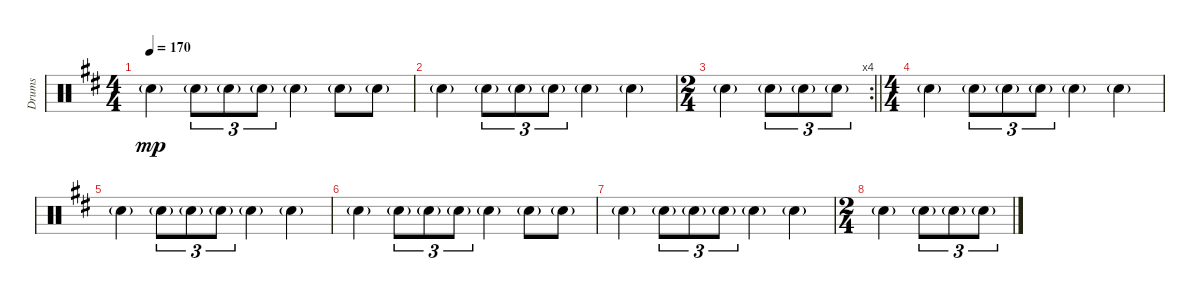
\track ("Drums" "Drums") {instrument percussion}
\staff {score}
\articulation defaults
\ts (4 4)
\tempo 170
\clef neutral
\ks d "Snare (hit) 2"{g}.4{dy mp} "Snare (hit) 2"{g}.8{tu (3 2)} "Snare (hit) 2"{g}.8{tu (3 2)} "Snare (hit) 2"{g}.8{tu (3 2)} "Snare (hit) 2"{g}.4 "Snare (hit) 2"{g}.8 "Snare (hit) 2"{g}.8
|
"Snare (hit) 2"{g}.4 "Snare (hit) 2"{g}.8{tu (3 2)} "Snare (hit) 2"{g}.8{tu (3 2)} "Snare (hit) 2"{g}.8{tu (3 2)} "Snare (hit) 2"{g}.4 "Snare (hit) 2"{g}.4 |
\rc 4
\ts (2 4)
\barLineRight lightlight "Snare (hit) 2"{g}.4 "Snare (hit) 2"{g}.8{tu (3 2)} "Snare (hit) 2"{g}.8{tu (3 2)} "Snare (hit) 2"{g}.8{tu (3 2)}
|
\ts (4 4)
"Snare (hit) 2"{g}.4 "Snare (hit) 2"{g}.8{tu (3 2)} "Snare (hit) 2"{g}.8{tu (3 2)} "Snare (hit) 2"{g}.8{tu (3 2)} "Snare (hit) 2"{g}.4 "Snare (hit) 2"{g}.4 |
"Snare (hit) 2"{g}.4 "Snare (hit) 2"{g}.8{tu (3 2)} "Snare (hit) 2"{g}.8{tu (3 2)} "Snare (hit) 2"{g}.8{tu (3 2)} "Snare (hit) 2"{g}.4 "Snare (hit) 2"{g}.4 |
"Snare (hit) 2"{g}.4 "Snare (hit) 2"{g}.8{tu (3 2)} "Snare (hit) 2"{g}.8{tu (3 2)} "Snare (hit) 2"{g}.8{tu (3 2)} "Snare (hit) 2"{g}.4 "Snare (hit) 2"{g}.8 "Snare (hit) 2"{g}.8 |
"Snare (hit) 2"{g}.4 "Snare (hit) 2"{g}.8{tu (3 2)} "Snare (hit) 2"{g}.8{tu (3 2)} "Snare (hit) 2"{g}.8{tu (3 2)} "Snare (hit) 2"{g}.4 "Snare (hit) 2"{g}.4 |
\ts (2 4)
"Snare (hit) 2"{g}.4 "Snare (hit) 2"{g}.8{tu (3 2)} "Snare (hit) 2"{g}.8{tu (3 2)} "Snare (hit) 2"{g}.8{tu (3 2)}
